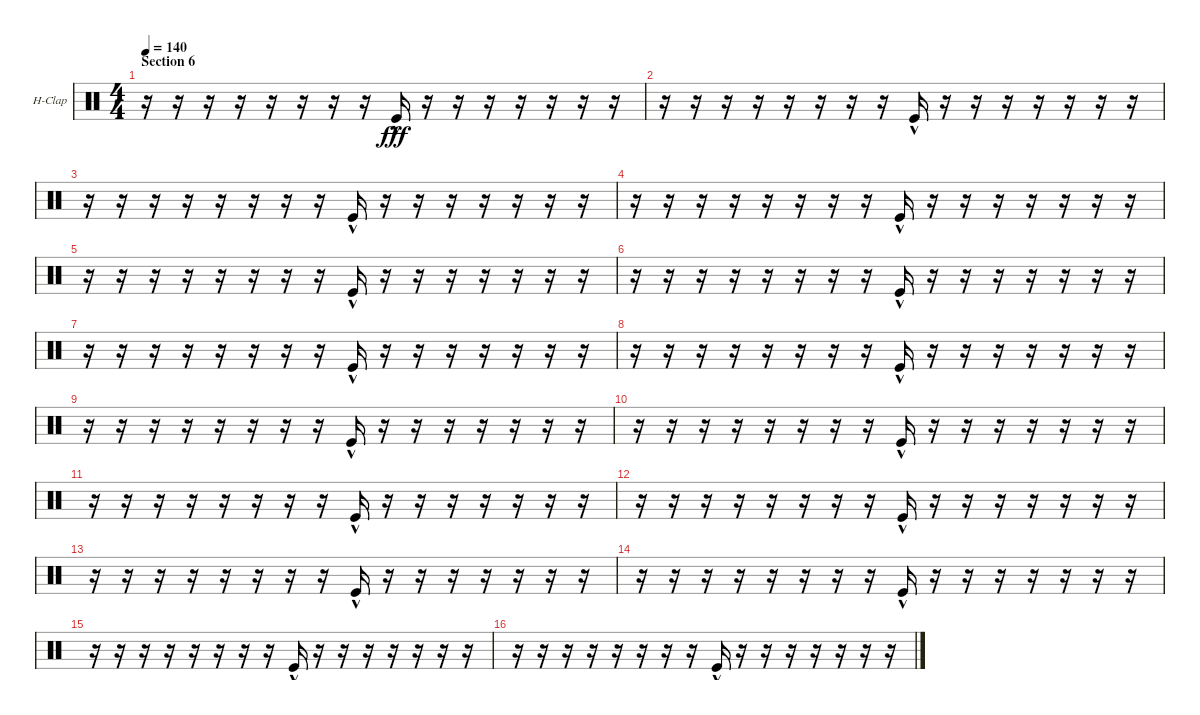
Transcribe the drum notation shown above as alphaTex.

\bracketExtendMode groupsimilarinstruments
\firstSystemTrackNameOrientation horizontal
\otherSystemsTrackNameOrientation horizontal
\track ("Hand Clap" "H-Clap") {instrument percussion}
\staff {score}
\articulation defaults
\ts (4 4)
\section ("" "Section 6")
\tempo 140
\clef neutral
\ks c
r.16{dy fff} r.16 r.16 r.16 r.16 r.16 r.16 r.16 "Kick (hit)"{hac}.16 r.16 r.16 r.16 r.16 r.16 r.16 r.16 |
r.16 r.16 r.16 r.16 r.16 r.16 r.16 r.16 "Kick (hit)"{hac}.16 r.16 r.16 r.16 r.16 r.16 r.16 r.16 |
r.16 r.16 r.16 r.16 r.16 r.16 r.16 r.16 "Kick (hit)"{hac}.16 r.16 r.16 r.16 r.16 r.16 r.16 r.16 |
r.16 r.16 r.16 r.16 r.16 r.16 r.16 r.16 "Kick (hit)"{hac}.16 r.16 r.16 r.16 r.16 r.16 r.16 r.16 |
r.16 r.16 r.16 r.16 r.16 r.16 r.16 r.16 "Kick (hit)"{hac}.16 r.16 r.16 r.16 r.16 r.16 r.16 r.16 |
r.16 r.16 r.16 r.16 r.16 r.16 r.16 r.16 "Kick (hit)"{hac}.16 r.16 r.16 r.16 r.16 r.16 r.16 r.16 |
r.16 r.16 r.16 r.16 r.16 r.16 r.16 r.16 "Kick (hit)"{hac}.16 r.16 r.16 r.16 r.16 r.16 r.16 r.16 |
r.16 r.16 r.16 r.16 r.16 r.16 r.16 r.16 "Kick (hit)"{hac}.16 r.16 r.16 r.16 r.16 r.16 r.16 r.16 |
r.16 r.16 r.16 r.16 r.16 r.16 r.16 r.16 "Kick (hit)"{hac}.16 r.16 r.16 r.16 r.16 r.16 r.16 r.16 |
r.16 r.16 r.16 r.16 r.16 r.16 r.16 r.16 "Kick (hit)"{hac}.16 r.16 r.16 r.16 r.16 r.16 r.16 r.16 |
r.16 r.16 r.16 r.16 r.16 r.16 r.16 r.16 "Kick (hit)"{hac}.16 r.16 r.16 r.16 r.16 r.16 r.16 r.16 |
r.16 r.16 r.16 r.16 r.16 r.16 r.16 r.16 "Kick (hit)"{hac}.16 r.16 r.16 r.16 r.16 r.16 r.16 r.16 |
r.16 r.16 r.16 r.16 r.16 r.16 r.16 r.16 "Kick (hit)"{hac}.16 r.16 r.16 r.16 r.16 r.16 r.16 r.16 |
r.16 r.16 r.16 r.16 r.16 r.16 r.16 r.16 "Kick (hit)"{hac}.16 r.16 r.16 r.16 r.16 r.16 r.16 r.16 |
r.16 r.16 r.16 r.16 r.16 r.16 r.16 r.16 "Kick (hit)"{hac}.16 r.16 r.16 r.16 r.16 r.16 r.16 r.16 |
r.16 r.16 r.16 r.16 r.16 r.16 r.16 r.16 "Kick (hit)"{hac}.16 r.16 r.16 r.16 r.16 r.16 r.16 r.16
